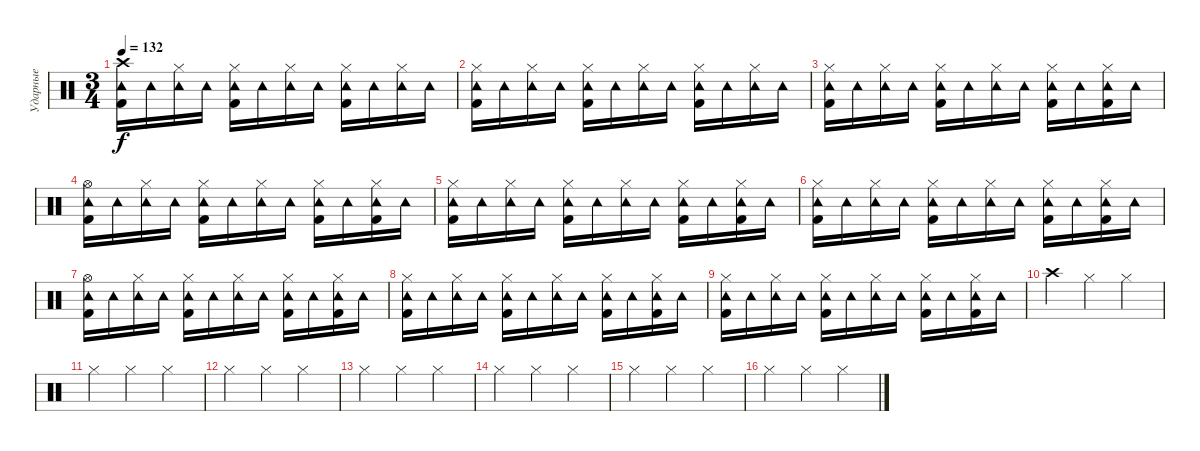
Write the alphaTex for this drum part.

\track ("Ударные" "Ударные") {instrument percussion}
\staff {score}
\articulation defaults
\ts (3 4)
\tempo 132
\clef neutral
\ks c
("Crash high (hit)" "Tambourine (hit)" "Kick (hit) 2").16{dy f} "Tambourine (hit)".16 ("Hi-Hat (closed)" "Tambourine (hit)").16 "Tambourine (hit)".16 ("Hi-Hat (closed)" "Tambourine (hit)" "Kick (hit) 2").16 "Tambourine (hit)".16 ("Hi-Hat (closed)" "Tambourine (hit)").16 "Tambourine (hit)".16 ("Hi-Hat (closed)" "Tambourine (hit)" "Kick (hit) 2").16 "Tambourine (hit)".16 ("Hi-Hat (closed)" "Tambourine (hit)").16 "Tambourine (hit)".16 |
("Hi-Hat (closed)" "Tambourine (hit)" "Kick (hit) 2").16 "Tambourine (hit)".16 ("Hi-Hat (closed)" "Tambourine (hit)").16 "Tambourine (hit)".16 ("Hi-Hat (closed)" "Tambourine (hit)" "Kick (hit) 2").16 "Tambourine (hit)".16 ("Hi-Hat (closed)" "Tambourine (hit)").16 "Tambourine (hit)".16 ("Hi-Hat (closed)" "Tambourine (hit)" "Kick (hit) 2").16 "Tambourine (hit)".16 ("Hi-Hat (closed)" "Tambourine (hit)").16 "Tambourine (hit)".16 |
("Hi-Hat (closed)" "Tambourine (hit)" "Kick (hit) 2").16 "Tambourine (hit)".16 ("Hi-Hat (closed)" "Tambourine (hit)").16 "Tambourine (hit)".16 ("Hi-Hat (closed)" "Tambourine (hit)" "Kick (hit) 2").16 "Tambourine (hit)".16 ("Hi-Hat (closed)" "Tambourine (hit)").16 "Tambourine (hit)".16 ("Hi-Hat (closed)" "Tambourine (hit)" "Kick (hit) 2").16 "Tambourine (hit)".16 ("Hi-Hat (closed)" "Tambourine (hit)" "Kick (hit) 2").16 "Tambourine (hit)".16 |
("Hi-Hat (open)" "Tambourine (hit)" "Kick (hit) 2").16 "Tambourine (hit)".16 ("Hi-Hat (closed)" "Tambourine (hit)").16 "Tambourine (hit)".16 ("Hi-Hat (closed)" "Tambourine (hit)" "Kick (hit) 2").16 "Tambourine (hit)".16 ("Hi-Hat (closed)" "Tambourine (hit)").16 "Tambourine (hit)".16 ("Hi-Hat (closed)" "Tambourine (hit)" "Kick (hit) 2").16 "Tambourine (hit)".16 ("Hi-Hat (closed)" "Tambourine (hit)" "Kick (hit) 2").16 "Tambourine (hit)".16 |
("Hi-Hat (closed)" "Tambourine (hit)" "Kick (hit) 2").16 "Tambourine (hit)".16 ("Hi-Hat (closed)" "Tambourine (hit)").16 "Tambourine (hit)".16 ("Hi-Hat (closed)" "Tambourine (hit)" "Kick (hit) 2").16 "Tambourine (hit)".16 ("Hi-Hat (closed)" "Tambourine (hit)").16 "Tambourine (hit)".16 ("Hi-Hat (closed)" "Tambourine (hit)" "Kick (hit) 2").16 "Tambourine (hit)".16 ("Hi-Hat (closed)" "Tambourine (hit)" "Kick (hit) 2").16 "Tambourine (hit)".16 |
("Hi-Hat (closed)" "Tambourine (hit)" "Kick (hit) 2").16 "Tambourine (hit)".16 ("Hi-Hat (closed)" "Tambourine (hit)").16 "Tambourine (hit)".16 ("Hi-Hat (closed)" "Tambourine (hit)" "Kick (hit) 2").16 "Tambourine (hit)".16 ("Hi-Hat (closed)" "Tambourine (hit)").16 "Tambourine (hit)".16 ("Hi-Hat (closed)" "Tambourine (hit)" "Kick (hit) 2").16 "Tambourine (hit)".16 ("Hi-Hat (closed)" "Tambourine (hit)" "Kick (hit) 2").16 "Tambourine (hit)".16 |
("Hi-Hat (open)" "Tambourine (hit)" "Kick (hit) 2").16 "Tambourine (hit)".16 ("Hi-Hat (closed)" "Tambourine (hit)").16 "Tambourine (hit)".16 ("Hi-Hat (closed)" "Tambourine (hit)" "Kick (hit) 2").16 "Tambourine (hit)".16 ("Hi-Hat (closed)" "Tambourine (hit)").16 "Tambourine (hit)".16 ("Hi-Hat (closed)" "Tambourine (hit)" "Kick (hit) 2").16 "Tambourine (hit)".16 ("Hi-Hat (closed)" "Tambourine (hit)" "Kick (hit) 2").16 "Tambourine (hit)".16 |
("Hi-Hat (closed)" "Tambourine (hit)" "Kick (hit) 2").16 "Tambourine (hit)".16 ("Hi-Hat (closed)" "Tambourine (hit)").16 "Tambourine (hit)".16 ("Hi-Hat (closed)" "Tambourine (hit)" "Kick (hit) 2").16 "Tambourine (hit)".16 ("Hi-Hat (closed)" "Tambourine (hit)").16 "Tambourine (hit)".16 ("Hi-Hat (closed)" "Tambourine (hit)" "Kick (hit) 2").16 "Tambourine (hit)".16 ("Hi-Hat (closed)" "Tambourine (hit)" "Kick (hit) 2").16 "Tambourine (hit)".16 |
("Hi-Hat (closed)" "Tambourine (hit)" "Kick (hit) 2").16 "Tambourine (hit)".16 ("Hi-Hat (closed)" "Tambourine (hit)").16 "Tambourine (hit)".16 ("Hi-Hat (closed)" "Tambourine (hit)" "Kick (hit) 2").16 "Tambourine (hit)".16 ("Hi-Hat (closed)" "Tambourine (hit)").16 "Tambourine (hit)".16 ("Hi-Hat (closed)" "Tambourine (hit)" "Kick (hit) 2").16 "Tambourine (hit)".16 ("Hi-Hat (closed)" "Tambourine (hit)" "Kick (hit) 2").16 "Tambourine (hit)".16 |
"Crash high (hit)".4 "Hi-Hat (closed)".4 "Hi-Hat (closed)".4 |
"Hi-Hat (closed)".4 "Hi-Hat (closed)".4 "Hi-Hat (closed)".4 |
"Hi-Hat (closed)".4 "Hi-Hat (closed)".4 "Hi-Hat (closed)".4 |
"Hi-Hat (closed)".4 "Hi-Hat (closed)".4 "Hi-Hat (closed)".4 |
"Hi-Hat (closed)".4 "Hi-Hat (closed)".4 "Hi-Hat (closed)".4 |
"Hi-Hat (closed)".4 "Hi-Hat (closed)".4 "Hi-Hat (closed)".4 |
"Hi-Hat (closed)".4 "Hi-Hat (closed)".4 "Hi-Hat (closed)".4
